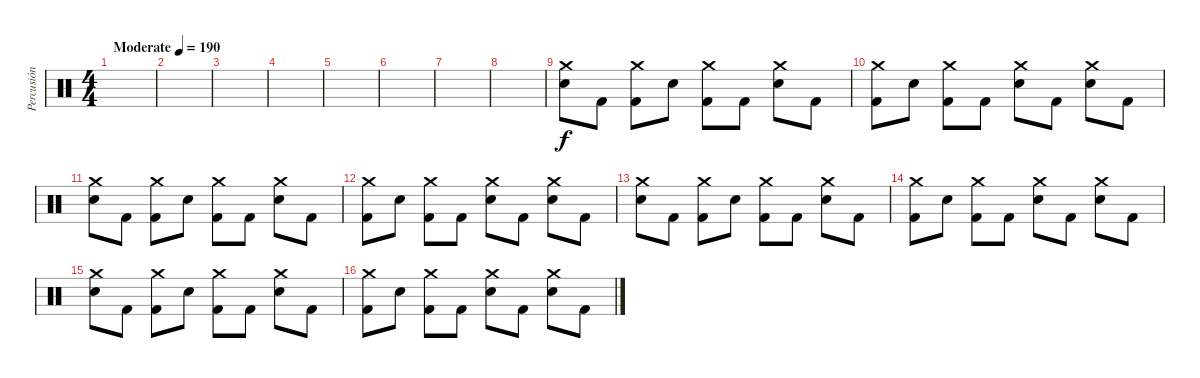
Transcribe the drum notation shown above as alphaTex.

\track ("Percusión" "Percusión") {instrument percussion}
\staff {score}
\articulation defaults
\ts (4 4)
\tempo (190 "Moderate")
\clef neutral
\ks c
|
|
|
|
|
|
|
|
("Crash medium (hit)" "Electric Snare (hit)").8 "Kick (hit) 2".8 ("Crash medium (hit)" "Kick (hit) 2").8 "Electric Snare (hit)".8 ("Crash medium (hit)" "Kick (hit) 2").8 "Kick (hit) 2".8 ("Crash medium (hit)" "Electric Snare (hit)").8 "Kick (hit) 2".8 |
("Crash medium (hit)" "Kick (hit) 2").8 "Electric Snare (hit)".8 ("Crash medium (hit)" "Kick (hit) 2").8 "Kick (hit) 2".8 ("Crash medium (hit)" "Electric Snare (hit)").8 "Kick (hit) 2".8 ("Crash medium (hit)" "Electric Snare (hit)").8 "Kick (hit) 2".8 |
("Crash medium (hit)" "Electric Snare (hit)").8 "Kick (hit) 2".8 ("Crash medium (hit)" "Kick (hit) 2").8 "Electric Snare (hit)".8 ("Crash medium (hit)" "Kick (hit) 2").8 "Kick (hit) 2".8 ("Crash medium (hit)" "Electric Snare (hit)").8 "Kick (hit) 2".8 |
("Crash medium (hit)" "Kick (hit) 2").8 "Electric Snare (hit)".8 ("Crash medium (hit)" "Kick (hit) 2").8 "Kick (hit) 2".8 ("Crash medium (hit)" "Electric Snare (hit)").8 "Kick (hit) 2".8 ("Crash medium (hit)" "Electric Snare (hit)").8 "Kick (hit) 2".8 |
("Crash medium (hit)" "Electric Snare (hit)").8 "Kick (hit) 2".8 ("Crash medium (hit)" "Kick (hit) 2").8 "Electric Snare (hit)".8 ("Crash medium (hit)" "Kick (hit) 2").8 "Kick (hit) 2".8 ("Crash medium (hit)" "Electric Snare (hit)").8 "Kick (hit) 2".8 |
("Crash medium (hit)" "Kick (hit) 2").8 "Electric Snare (hit)".8 ("Crash medium (hit)" "Kick (hit) 2").8 "Kick (hit) 2".8 ("Crash medium (hit)" "Electric Snare (hit)").8 "Kick (hit) 2".8 ("Crash medium (hit)" "Electric Snare (hit)").8 "Kick (hit) 2".8 |
("Crash medium (hit)" "Electric Snare (hit)").8 "Kick (hit) 2".8 ("Crash medium (hit)" "Kick (hit) 2").8 "Electric Snare (hit)".8 ("Crash medium (hit)" "Kick (hit) 2").8 "Kick (hit) 2".8 ("Crash medium (hit)" "Electric Snare (hit)").8 "Kick (hit) 2".8 |
("Crash medium (hit)" "Kick (hit) 2").8 "Electric Snare (hit)".8 ("Crash medium (hit)" "Kick (hit) 2").8 "Kick (hit) 2".8 ("Crash medium (hit)" "Electric Snare (hit)").8 "Kick (hit) 2".8 ("Crash medium (hit)" "Electric Snare (hit)").8 "Kick (hit) 2".8
